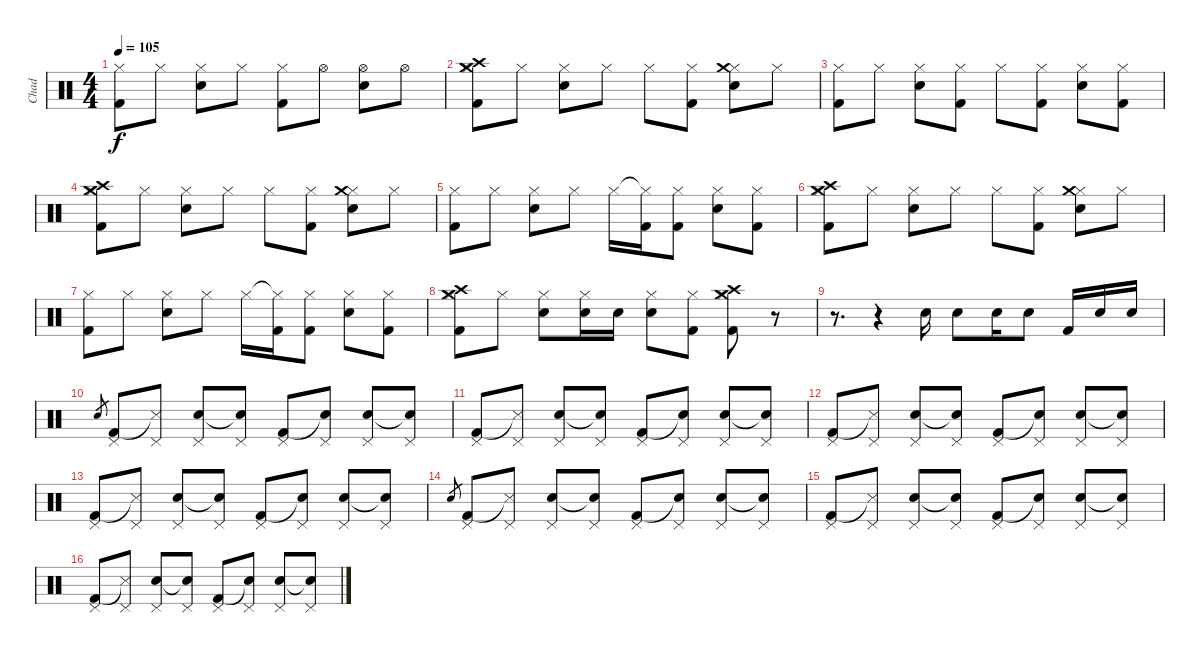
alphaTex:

\track ("Chad" "Chad") {instrument percussion}
\staff {score}
\articulation defaults
\ts (4 4)
\tempo 105
\clef neutral
\ks c
("Hi-Hat (closed)" "Kick (hit) 2").8{dy f} "Hi-Hat (closed)".8 ("Hi-Hat (closed)" "Electric Snare (hit)").8 "Hi-Hat (closed)".8 ("Hi-Hat (closed)" "Kick (hit) 2").8 "Hi-Hat (open)".8 ("Hi-Hat (open)" "Electric Snare (hit)").8 "Hi-Hat (open)".8 |
("Hi-Hat (closed)" "Kick (hit) 2" "Crash high (hit)" "Crash medium (hit)").8 "Hi-Hat (closed)".8 ("Hi-Hat (closed)" "Electric Snare (hit)").8 "Hi-Hat (closed)".8 "Hi-Hat (closed)".8 ("Hi-Hat (closed)" "Kick (hit) 2").8 ("Hi-Hat (closed)" "Electric Snare (hit)" "Crash medium (hit)").8 "Hi-Hat (closed)".8 |
("Hi-Hat (closed)" "Kick (hit) 2").8 "Hi-Hat (closed)".8 ("Hi-Hat (closed)" "Electric Snare (hit)").8 ("Hi-Hat (closed)" "Kick (hit) 2").8 "Hi-Hat (closed)".8 ("Hi-Hat (closed)" "Kick (hit) 2").8 ("Hi-Hat (closed)" "Electric Snare (hit)").8 ("Hi-Hat (closed)" "Kick (hit) 2").8 |
("Hi-Hat (closed)" "Kick (hit) 2" "Crash high (hit)" "Crash medium (hit)").8 "Hi-Hat (closed)".8 ("Hi-Hat (closed)" "Electric Snare (hit)").8 "Hi-Hat (closed)".8 "Hi-Hat (closed)".8 ("Hi-Hat (closed)" "Kick (hit) 2").8 ("Hi-Hat (closed)" "Electric Snare (hit)" "Crash medium (hit)").8 "Hi-Hat (closed)".8 |
("Hi-Hat (closed)" "Kick (hit) 2").8 "Hi-Hat (closed)".8 ("Hi-Hat (closed)" "Electric Snare (hit)").8 "Hi-Hat (closed)".8 "Hi-Hat (closed)".16 ("Hi-Hat (closed)"{t} "Kick (hit) 2").16 ("Hi-Hat (closed)" "Kick (hit) 2").8 ("Hi-Hat (closed)" "Electric Snare (hit)").8 ("Hi-Hat (closed)" "Kick (hit) 2").8 |
("Hi-Hat (closed)" "Kick (hit) 2" "Crash high (hit)" "Crash medium (hit)").8 "Hi-Hat (closed)".8 ("Hi-Hat (closed)" "Electric Snare (hit)").8 "Hi-Hat (closed)".8 "Hi-Hat (closed)".8 ("Hi-Hat (closed)" "Kick (hit) 2").8 ("Hi-Hat (closed)" "Electric Snare (hit)" "Crash medium (hit)").8 "Hi-Hat (closed)".8 |
("Hi-Hat (closed)" "Kick (hit) 2").8 "Hi-Hat (closed)".8 ("Hi-Hat (closed)" "Electric Snare (hit)").8 "Hi-Hat (closed)".8 "Hi-Hat (closed)".16 ("Hi-Hat (closed)"{t} "Kick (hit) 2").16 ("Hi-Hat (closed)" "Kick (hit) 2").8 ("Hi-Hat (closed)" "Electric Snare (hit)").8 ("Hi-Hat (closed)" "Kick (hit) 2").8 |
("Hi-Hat (closed)" "Kick (hit) 2" "Crash high (hit)" "Crash medium (hit)").8 "Hi-Hat (closed)".8 ("Hi-Hat (closed)" "Electric Snare (hit)").8 ("Hi-Hat (closed)" "Electric Snare (hit)").16 "Electric Snare (hit)".16 ("Hi-Hat (closed)" "Electric Snare (hit)").8 ("Hi-Hat (closed)" "Kick (hit) 2").8 ("Hi-Hat (closed)" "Kick (hit) 2" "Crash medium (hit)" "Crash high (hit)").8 r.8 |
r.8{d} r.4 "Electric Snare (hit)".16 "Electric Snare (hit)".8 "Electric Snare (hit)".16 "Electric Snare (hit)".8 "Kick (hit) 2".16 "Electric Snare (hit)".16 "Electric Snare (hit)".16 |
"Electric Snare (hit)".8{gr} ("Pedal Hi-Hat (hit)" "Kick (hit) 2").8 ("Pedal Hi-Hat (hit)" "Snare (side stick) 3"{t}).8 ("Pedal Hi-Hat (hit)" "Electric Snare (hit)").8 ("Pedal Hi-Hat (hit)" "Snare (hit)"{t}).8 ("Pedal Hi-Hat (hit)" "Kick (hit) 2").8 ("Pedal Hi-Hat (hit)" "Snare (hit)"{t}).8 ("Pedal Hi-Hat (hit)" "Electric Snare (hit)").8 ("Pedal Hi-Hat (hit)" "Snare (hit)"{t}).8 |
("Pedal Hi-Hat (hit)" "Kick (hit) 2").8 ("Pedal Hi-Hat (hit)" "Snare (side stick) 3"{t}).8 ("Pedal Hi-Hat (hit)" "Electric Snare (hit)").8 ("Pedal Hi-Hat (hit)" "Snare (hit)"{t}).8 ("Pedal Hi-Hat (hit)" "Kick (hit) 2").8 ("Pedal Hi-Hat (hit)" "Snare (hit)"{t}).8 ("Pedal Hi-Hat (hit)" "Electric Snare (hit)").8 ("Pedal Hi-Hat (hit)" "Snare (hit)"{t}).8 |
("Pedal Hi-Hat (hit)" "Kick (hit) 2").8 ("Pedal Hi-Hat (hit)" "Snare (side stick) 3"{t}).8 ("Pedal Hi-Hat (hit)" "Electric Snare (hit)").8 ("Pedal Hi-Hat (hit)" "Snare (hit)"{t}).8 ("Pedal Hi-Hat (hit)" "Kick (hit) 2").8 ("Pedal Hi-Hat (hit)" "Snare (hit)"{t}).8 ("Pedal Hi-Hat (hit)" "Electric Snare (hit)").8 ("Pedal Hi-Hat (hit)" "Snare (hit)"{t}).8 |
("Pedal Hi-Hat (hit)" "Kick (hit) 2").8 ("Pedal Hi-Hat (hit)" "Snare (side stick) 3"{t}).8 ("Pedal Hi-Hat (hit)" "Electric Snare (hit)").8 ("Pedal Hi-Hat (hit)" "Snare (hit)"{t}).8 ("Pedal Hi-Hat (hit)" "Kick (hit) 2").8 ("Pedal Hi-Hat (hit)" "Snare (hit)"{t}).8 ("Pedal Hi-Hat (hit)" "Electric Snare (hit)").8 ("Pedal Hi-Hat (hit)" "Snare (hit)"{t}).8 |
"Electric Snare (hit)".8{gr} ("Pedal Hi-Hat (hit)" "Kick (hit) 2").8 ("Pedal Hi-Hat (hit)" "Snare (side stick) 3"{t}).8 ("Pedal Hi-Hat (hit)" "Electric Snare (hit)").8 ("Pedal Hi-Hat (hit)" "Snare (hit)"{t}).8 ("Pedal Hi-Hat (hit)" "Kick (hit) 2").8 ("Pedal Hi-Hat (hit)" "Snare (hit)"{t}).8 ("Pedal Hi-Hat (hit)" "Electric Snare (hit)").8 ("Pedal Hi-Hat (hit)" "Snare (hit)"{t}).8 |
("Pedal Hi-Hat (hit)" "Kick (hit) 2").8 ("Pedal Hi-Hat (hit)" "Snare (side stick) 3"{t}).8 ("Pedal Hi-Hat (hit)" "Electric Snare (hit)").8 ("Pedal Hi-Hat (hit)" "Snare (hit)"{t}).8 ("Pedal Hi-Hat (hit)" "Kick (hit) 2").8 ("Pedal Hi-Hat (hit)" "Snare (hit)"{t}).8 ("Pedal Hi-Hat (hit)" "Electric Snare (hit)").8 ("Pedal Hi-Hat (hit)" "Snare (hit)"{t}).8 |
("Pedal Hi-Hat (hit)" "Kick (hit) 2").8 ("Pedal Hi-Hat (hit)" "Snare (side stick) 3"{t}).8 ("Pedal Hi-Hat (hit)" "Electric Snare (hit)").8 ("Pedal Hi-Hat (hit)" "Snare (hit)"{t}).8 ("Pedal Hi-Hat (hit)" "Kick (hit) 2").8 ("Pedal Hi-Hat (hit)" "Snare (hit)"{t}).8 ("Pedal Hi-Hat (hit)" "Electric Snare (hit)").8 ("Pedal Hi-Hat (hit)" "Snare (hit)"{t}).8
